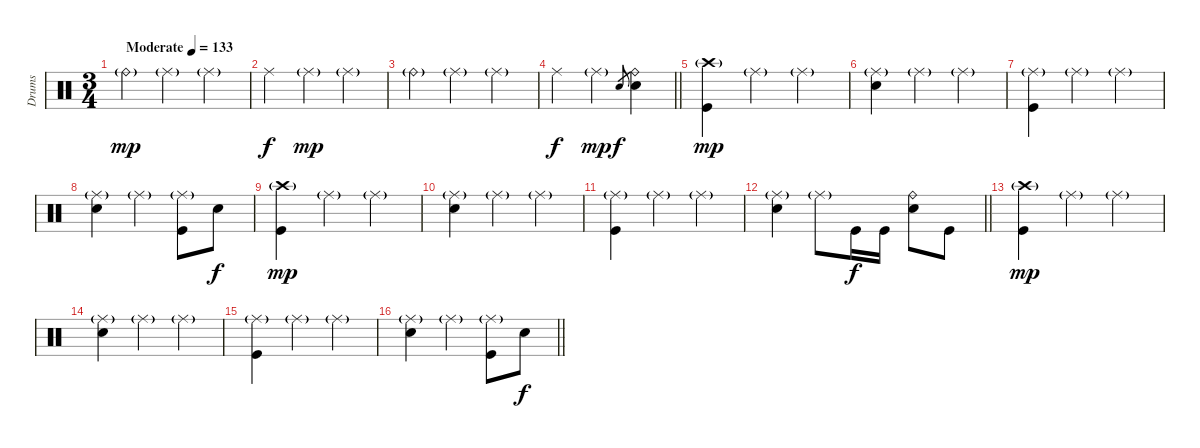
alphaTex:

\track ("Drums" "Drums") {instrument percussion}
\staff
\articulation defaults
\ts (3 4)
\tempo (133 "Moderate")
\clef neutral
\ks c "Ride (bell)"{g}.4{dy mp} "Ride (middle)"{g}.4 "Ride (middle)"{g}.4
|
"Ride (middle)".4{dy f} "Ride (middle)"{g}.4{dy mp} "Ride (middle)"{g}.4 |
"Ride (bell)"{g}.4 "Ride (middle)"{g}.4 "Ride (middle)"{g}.4 |
\barLineRight lightlight "Ride (middle)".4{dy f} "Ride (middle)"{g}.4{dy mp} "Electric Snare (hit)".8{gr dy f}
("Ride (bell)" "Electric Snare (hit)").4 |
("Crash high (hit)"{g} "Kick (hit)").4{dy mp} "Ride (middle)"{g}.4 "Ride (middle)"{g}.4 |
("Ride (middle)"{g} "Electric Snare (hit)").4 "Ride (middle)"{g}.4 "Ride (middle)"{g}.4 |
("Ride (middle)"{g} "Kick (hit)").4 "Ride (middle)"{g}.4 "Ride (middle)"{g}.4 |
("Ride (middle)"{g} "Electric Snare (hit)").4 "Ride (middle)"{g}.4 ("Ride (middle)"{g} "Kick (hit)").8 "Electric Snare (hit)".8{dy f} |
("Crash high (hit)"{g} "Kick (hit)").4{dy mp} "Ride (middle)"{g}.4 "Ride (middle)"{g}.4 |
("Ride (middle)"{g} "Electric Snare (hit)").4 "Ride (middle)"{g}.4 "Ride (middle)"{g}.4 |
("Ride (middle)"{g} "Kick (hit)").4 "Ride (middle)"{g}.4 "Ride (middle)"{g}.4 |
\barLineRight lightlight
("Ride (middle)"{g} "Electric Snare (hit)").4 "Ride (middle)"{g}.8 "Kick (hit)".16{dy f} "Kick (hit)".16 ("Ride (bell)" "Electric Snare (hit)").8 "Kick (hit)".8 |
("Crash high (hit)"{g} "Kick (hit)").4{dy mp} "Ride (middle)"{g}.4 "Ride (middle)"{g}.4 |
("Ride (middle)"{g} "Electric Snare (hit)").4 "Ride (middle)"{g}.4 "Ride (middle)"{g}.4 |
("Ride (middle)"{g} "Kick (hit)").4 "Ride (middle)"{g}.4 "Ride (middle)"{g}.4 |
\barLineRight lightlight
("Ride (middle)"{g} "Electric Snare (hit)").4 "Ride (middle)"{g}.4 ("Ride (middle)"{g} "Kick (hit)").8 "Electric Snare (hit)".8{dy f}
